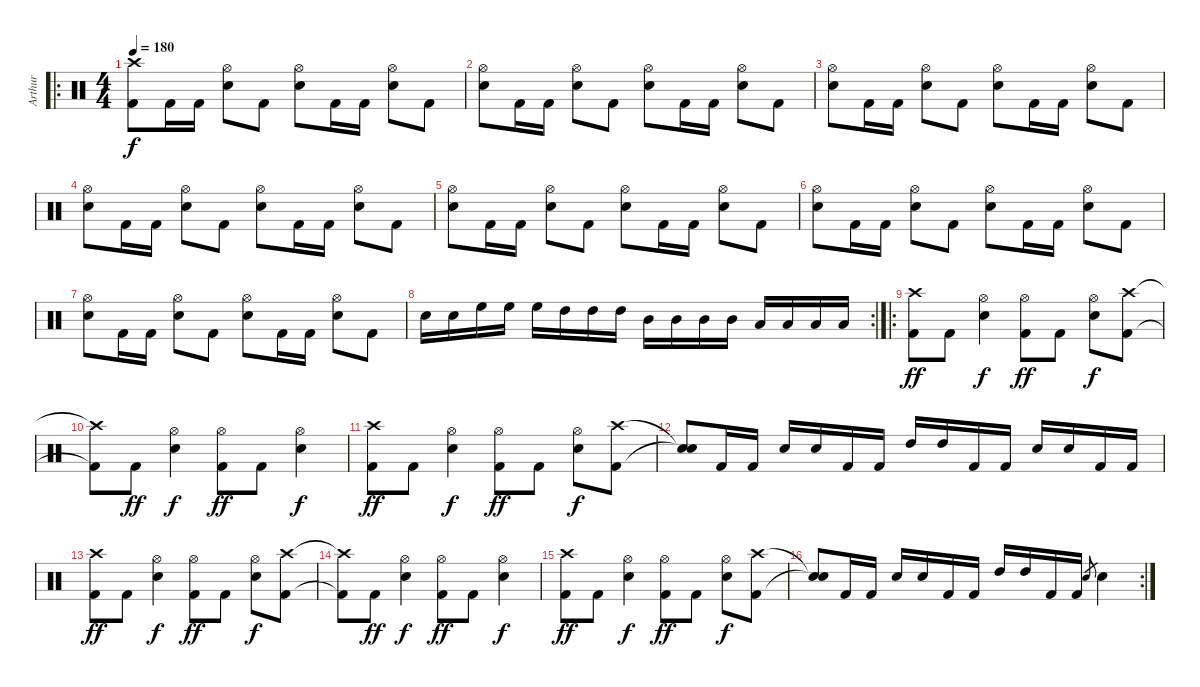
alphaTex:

\track ("Arthur" "Arthur") {instrument percussion}
\staff {score}
\articulation defaults
\ro
\ts (4 4)
\tempo 180
\clef neutral
\ks c
("Crash high (hit)" "Kick (hit) 2").8{dy f} "Kick (hit) 2".16 "Kick (hit) 2".16 ("Hi-Hat (open)" "Electric Snare (hit)").8 "Kick (hit) 2".8 ("Hi-Hat (open)" "Electric Snare (hit)").8 "Kick (hit) 2".16 "Kick (hit) 2".16 ("Hi-Hat (open)" "Electric Snare (hit)").8 "Kick (hit) 2".8 |
("Hi-Hat (open)" "Electric Snare (hit)").8 "Kick (hit) 2".16 "Kick (hit) 2".16 ("Hi-Hat (open)" "Electric Snare (hit)").8 "Kick (hit) 2".8 ("Hi-Hat (open)" "Electric Snare (hit)").8 "Kick (hit) 2".16 "Kick (hit) 2".16 ("Hi-Hat (open)" "Electric Snare (hit)").8 "Kick (hit) 2".8 |
("Hi-Hat (open)" "Electric Snare (hit)").8 "Kick (hit) 2".16 "Kick (hit) 2".16 ("Hi-Hat (open)" "Electric Snare (hit)").8 "Kick (hit) 2".8 ("Hi-Hat (open)" "Electric Snare (hit)").8 "Kick (hit) 2".16 "Kick (hit) 2".16 ("Hi-Hat (open)" "Electric Snare (hit)").8 "Kick (hit) 2".8 |
("Hi-Hat (open)" "Electric Snare (hit)").8 "Kick (hit) 2".16 "Kick (hit) 2".16 ("Hi-Hat (open)" "Electric Snare (hit)").8 "Kick (hit) 2".8 ("Hi-Hat (open)" "Electric Snare (hit)").8 "Kick (hit) 2".16 "Kick (hit) 2".16 ("Hi-Hat (open)" "Electric Snare (hit)").8 "Kick (hit) 2".8 |
("Hi-Hat (open)" "Electric Snare (hit)").8 "Kick (hit) 2".16 "Kick (hit) 2".16 ("Hi-Hat (open)" "Electric Snare (hit)").8 "Kick (hit) 2".8 ("Hi-Hat (open)" "Electric Snare (hit)").8 "Kick (hit) 2".16 "Kick (hit) 2".16 ("Hi-Hat (open)" "Electric Snare (hit)").8 "Kick (hit) 2".8 |
("Hi-Hat (open)" "Electric Snare (hit)").8 "Kick (hit) 2".16 "Kick (hit) 2".16 ("Hi-Hat (open)" "Electric Snare (hit)").8 "Kick (hit) 2".8 ("Hi-Hat (open)" "Electric Snare (hit)").8 "Kick (hit) 2".16 "Kick (hit) 2".16 ("Hi-Hat (open)" "Electric Snare (hit)").8 "Kick (hit) 2".8 |
("Hi-Hat (open)" "Electric Snare (hit)").8 "Kick (hit) 2".16 "Kick (hit) 2".16 ("Hi-Hat (open)" "Electric Snare (hit)").8 "Kick (hit) 2".8 ("Hi-Hat (open)" "Electric Snare (hit)").8 "Kick (hit) 2".16 "Kick (hit) 2".16 ("Hi-Hat (open)" "Electric Snare (hit)").8 "Kick (hit) 2".8 |
\rc 2 "Electric Snare (hit)".16 "Electric Snare (hit)".16 "High Floor Tom (hit)".16 "High Floor Tom (hit)".16 "High Floor Tom (hit)".16 "High Tom (hit)".16 "High Tom (hit)".16 "High Tom (hit)".16 "Mid Tom (hit)".16 "Mid Tom (hit)".16 "Mid Tom (hit)".16 "Mid Tom (hit)".16 "Low Tom (hit)".16 "Low Tom (hit)".16 "Low Tom (hit)".16 "Low Tom (hit)".16
|
\ro
("Crash high (hit)" "Kick (hit) 2").8{dy ff} "Kick (hit) 2".8 ("Hi-Hat (open)" "Electric Snare (hit)").4{dy f} ("Hi-Hat (open)" "Kick (hit) 2").8{dy ff} "Kick (hit) 2".8 ("Hi-Hat (open)" "Electric Snare (hit)").8{dy f} ("Crash high (hit)" "Kick (hit) 2").8 |
("Crash high (hit)"{t} "Kick (hit) 2"{t}).8 "Kick (hit) 2".8{dy ff} ("Hi-Hat (open)" "Electric Snare (hit)").4{dy f} ("Hi-Hat (open)" "Kick (hit) 2").8{dy ff} "Kick (hit) 2".8 ("Hi-Hat (open)" "Electric Snare (hit)").4{dy f} |
("Crash high (hit)" "Kick (hit) 2").8{dy ff} "Kick (hit) 2".8 ("Hi-Hat (open)" "Electric Snare (hit)").4{dy f} ("Hi-Hat (open)" "Kick (hit) 2").8{dy ff} "Kick (hit) 2".8 ("Hi-Hat (open)" "Electric Snare (hit)").8{dy f} ("Crash high (hit)" "Kick (hit) 2").8 |
("Snare (hit)"{t} "Snare (hit)"{t}).8 "Kick (hit) 2".16 "Kick (hit) 2".16 "Electric Snare (hit)".16 "Electric Snare (hit)".16 "Kick (hit) 2".16 "Kick (hit) 2".16 "High Tom (hit)".16 "High Tom (hit)".16 "Kick (hit) 2".16 "Kick (hit) 2".16 "Electric Snare (hit)".16 "Electric Snare (hit)".16 "Kick (hit) 2".16 "Kick (hit) 2".16 |
("Crash high (hit)" "Kick (hit) 2").8{dy ff} "Kick (hit) 2".8 ("Hi-Hat (open)" "Electric Snare (hit)").4{dy f} ("Hi-Hat (open)" "Kick (hit) 2").8{dy ff} "Kick (hit) 2".8 ("Hi-Hat (open)" "Electric Snare (hit)").8{dy f} ("Crash high (hit)" "Kick (hit) 2").8 |
("Crash high (hit)"{t} "Kick (hit) 2"{t}).8 "Kick (hit) 2".8{dy ff} ("Hi-Hat (open)" "Electric Snare (hit)").4{dy f} ("Hi-Hat (open)" "Kick (hit) 2").8{dy ff} "Kick (hit) 2".8 ("Hi-Hat (open)" "Electric Snare (hit)").4{dy f} |
("Crash high (hit)" "Kick (hit) 2").8{dy ff} "Kick (hit) 2".8 ("Hi-Hat (open)" "Electric Snare (hit)").4{dy f} ("Hi-Hat (open)" "Kick (hit) 2").8{dy ff} "Kick (hit) 2".8 ("Hi-Hat (open)" "Electric Snare (hit)").8{dy f} ("Crash high (hit)" "Kick (hit) 2").8 |
\rc 2
("Snare (hit)"{t} "Snare (hit)"{t}).8 "Kick (hit) 2".16 "Kick (hit) 2".16 "Electric Snare (hit)".16 "Electric Snare (hit)".16 "Kick (hit) 2".16 "Kick (hit) 2".16 "High Tom (hit)".16 "High Tom (hit)".16 "Kick (hit) 2".16 "Kick (hit) 2".16 "Electric Snare (hit)".8{gr} "Electric Snare (hit)".4
